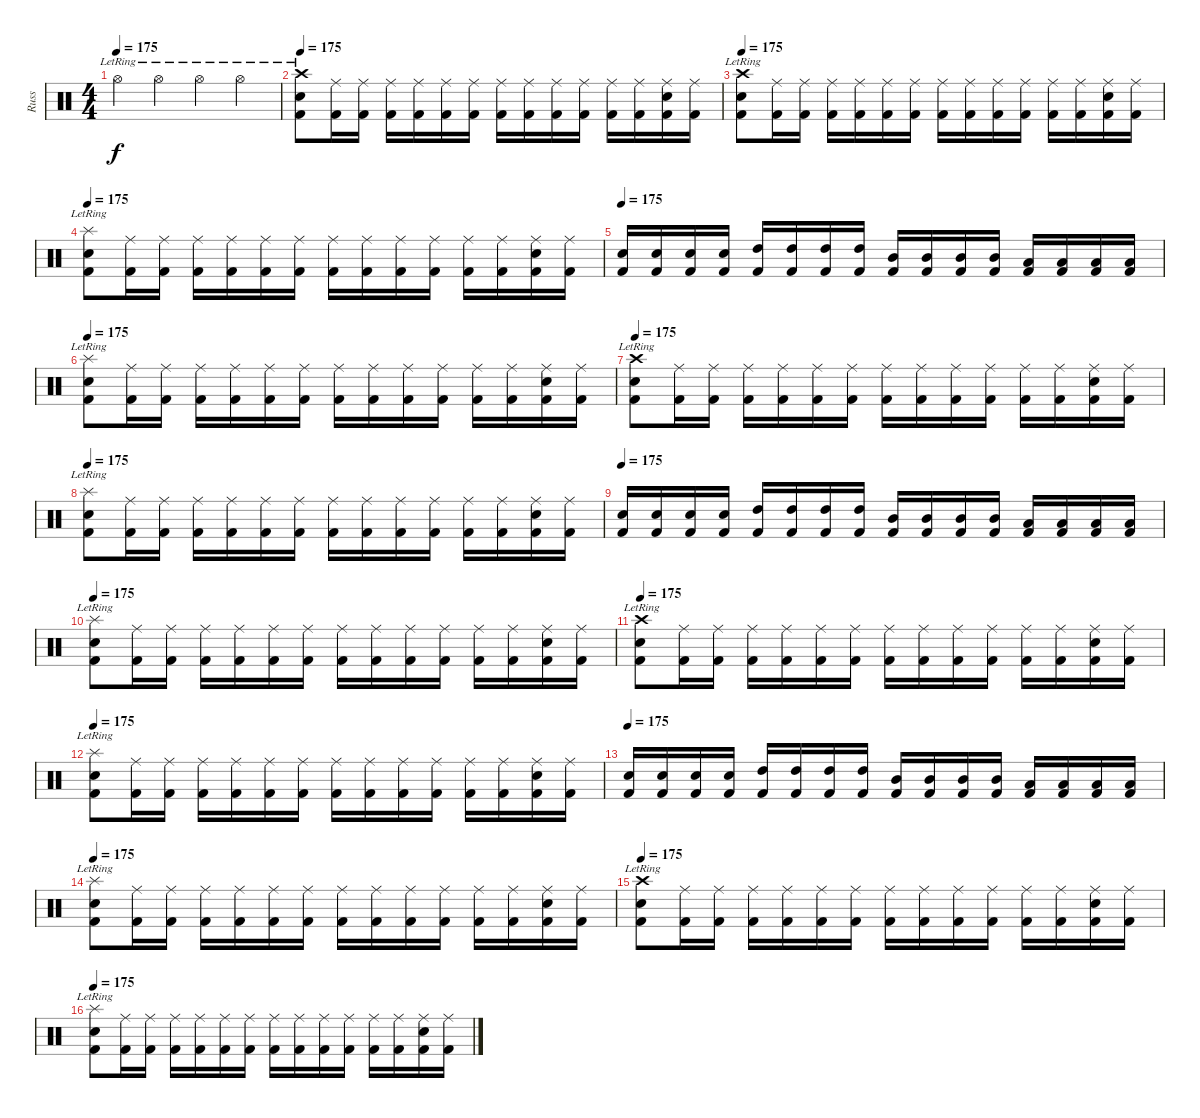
\track ("Russ" "Russ") {instrument percussion}
\staff {score}
\articulation defaults
\ts (4 4)
\tempo 175
\clef neutral
\ks c "Hi-Hat (open)"{lr}.4{dy f} "Hi-Hat (open)"{lr}.4 "Hi-Hat (open)"{lr}.4 "Hi-Hat (open)"{lr}.4
|
\tempo 175
("Kick (hit) 2" "Snare (hit) 2" "Crash high (hit)"{lr}).8 ("Kick (hit) 2" "Ride (middle)").16 ("Kick (hit) 2" "Ride (middle)").16 ("Kick (hit) 2" "Ride (middle)").16 ("Kick (hit) 2" "Ride (middle)").16 ("Kick (hit) 2" "Ride (middle)").16 ("Kick (hit) 2" "Ride (middle)").16 ("Kick (hit) 2" "Ride (middle)").16 ("Kick (hit) 2" "Ride (middle)").16 ("Kick (hit) 2" "Ride (middle)").16 ("Kick (hit) 2" "Ride (middle)").16 ("Kick (hit) 2" "Ride (middle)").16 ("Kick (hit) 2" "Ride (middle)").16 ("Kick (hit) 2" "Snare (hit) 2" "Ride (middle)").16 ("Kick (hit) 2" "Ride (middle)").16 |
\tempo 175
("Kick (hit) 2" "Snare (hit) 2" "Crash high (hit)"{lr}).8 ("Kick (hit) 2" "Ride (middle)").16 ("Kick (hit) 2" "Ride (middle)").16 ("Kick (hit) 2" "Ride (middle)").16 ("Kick (hit) 2" "Ride (middle)").16 ("Kick (hit) 2" "Ride (middle)").16 ("Kick (hit) 2" "Ride (middle)").16 ("Kick (hit) 2" "Ride (middle)").16 ("Kick (hit) 2" "Ride (middle)").16 ("Kick (hit) 2" "Ride (middle)").16 ("Kick (hit) 2" "Ride (middle)").16 ("Kick (hit) 2" "Ride (middle)").16 ("Kick (hit) 2" "Ride (middle)").16 ("Kick (hit) 2" "Snare (hit) 2" "Ride (middle)").16 ("Kick (hit) 2" "Ride (middle)").16 |
\tempo 175
("Kick (hit) 2" "Snare (hit) 2" "Splash (hit)"{lr}).8 ("Kick (hit) 2" "Ride (middle)").16 ("Kick (hit) 2" "Ride (middle)").16 ("Kick (hit) 2" "Ride (middle)").16 ("Kick (hit) 2" "Ride (middle)").16 ("Kick (hit) 2" "Ride (middle)").16 ("Kick (hit) 2" "Ride (middle)").16 ("Kick (hit) 2" "Ride (middle)").16 ("Kick (hit) 2" "Ride (middle)").16 ("Kick (hit) 2" "Ride (middle)").16 ("Kick (hit) 2" "Ride (middle)").16 ("Kick (hit) 2" "Ride (middle)").16 ("Kick (hit) 2" "Ride (middle)").16 ("Kick (hit) 2" "Snare (hit) 2" "Ride (middle)").16 ("Kick (hit) 2" "Ride (middle)").16 |
\tempo 175
("Kick (hit) 2" "Snare (hit) 2").16 ("Kick (hit) 2" "Snare (hit) 2").16 ("Kick (hit) 2" "Snare (hit) 2").16 ("Kick (hit) 2" "Snare (hit) 2").16 ("Kick (hit) 2" "High Tom (hit)").16 ("Kick (hit) 2" "High Tom (hit)").16 ("Kick (hit) 2" "High Tom (hit)").16 ("Kick (hit) 2" "High Tom (hit)").16 ("Kick (hit) 2" "Mid Tom (hit)").16 ("Kick (hit) 2" "Mid Tom (hit)").16 ("Kick (hit) 2" "Mid Tom (hit)").16 ("Kick (hit) 2" "Mid Tom (hit)").16 ("Kick (hit) 2" "Low Floor Tom (hit)").16 ("Kick (hit) 2" "Low Floor Tom (hit)").16 ("Kick (hit) 2" "Low Floor Tom (hit)").16 ("Kick (hit) 2" "Low Floor Tom (hit)").16 |
\tempo 175
("Kick (hit) 2" "Snare (hit) 2" "Splash (hit)"{lr}).8 ("Kick (hit) 2" "Ride (middle)").16 ("Kick (hit) 2" "Ride (middle)").16 ("Kick (hit) 2" "Ride (middle)").16 ("Kick (hit) 2" "Ride (middle)").16 ("Kick (hit) 2" "Ride (middle)").16 ("Kick (hit) 2" "Ride (middle)").16 ("Kick (hit) 2" "Ride (middle)").16 ("Kick (hit) 2" "Ride (middle)").16 ("Kick (hit) 2" "Ride (middle)").16 ("Kick (hit) 2" "Ride (middle)").16 ("Kick (hit) 2" "Ride (middle)").16 ("Kick (hit) 2" "Ride (middle)").16 ("Kick (hit) 2" "Snare (hit) 2" "Ride (middle)").16 ("Kick (hit) 2" "Ride (middle)").16 |
\tempo 175
("Kick (hit) 2" "Snare (hit) 2" "Crash high (hit)"{lr}).8 ("Kick (hit) 2" "Ride (middle)").16 ("Kick (hit) 2" "Ride (middle)").16 ("Kick (hit) 2" "Ride (middle)").16 ("Kick (hit) 2" "Ride (middle)").16 ("Kick (hit) 2" "Ride (middle)").16 ("Kick (hit) 2" "Ride (middle)").16 ("Kick (hit) 2" "Ride (middle)").16 ("Kick (hit) 2" "Ride (middle)").16 ("Kick (hit) 2" "Ride (middle)").16 ("Kick (hit) 2" "Ride (middle)").16 ("Kick (hit) 2" "Ride (middle)").16 ("Kick (hit) 2" "Ride (middle)").16 ("Kick (hit) 2" "Snare (hit) 2" "Ride (middle)").16 ("Kick (hit) 2" "Ride (middle)").16 |
\tempo 175
("Kick (hit) 2" "Snare (hit) 2" "Splash (hit)"{lr}).8 ("Kick (hit) 2" "Ride (middle)").16 ("Kick (hit) 2" "Ride (middle)").16 ("Kick (hit) 2" "Ride (middle)").16 ("Kick (hit) 2" "Ride (middle)").16 ("Kick (hit) 2" "Ride (middle)").16 ("Kick (hit) 2" "Ride (middle)").16 ("Kick (hit) 2" "Ride (middle)").16 ("Kick (hit) 2" "Ride (middle)").16 ("Kick (hit) 2" "Ride (middle)").16 ("Kick (hit) 2" "Ride (middle)").16 ("Kick (hit) 2" "Ride (middle)").16 ("Kick (hit) 2" "Ride (middle)").16 ("Kick (hit) 2" "Snare (hit) 2" "Ride (middle)").16 ("Kick (hit) 2" "Ride (middle)").16 |
\tempo 175
("Kick (hit) 2" "Snare (hit) 2").16 ("Kick (hit) 2" "Snare (hit) 2").16 ("Kick (hit) 2" "Snare (hit) 2").16 ("Kick (hit) 2" "Snare (hit) 2").16 ("Kick (hit) 2" "High Tom (hit)").16 ("Kick (hit) 2" "High Tom (hit)").16 ("Kick (hit) 2" "High Tom (hit)").16 ("Kick (hit) 2" "High Tom (hit)").16 ("Kick (hit) 2" "Mid Tom (hit)").16 ("Kick (hit) 2" "Mid Tom (hit)").16 ("Kick (hit) 2" "Mid Tom (hit)").16 ("Kick (hit) 2" "Mid Tom (hit)").16 ("Kick (hit) 2" "Low Floor Tom (hit)").16 ("Kick (hit) 2" "Low Floor Tom (hit)").16 ("Kick (hit) 2" "Low Floor Tom (hit)").16 ("Kick (hit) 2" "Low Floor Tom (hit)").16 |
\tempo 175
("Kick (hit) 2" "Snare (hit) 2" "Splash (hit)"{lr}).8 ("Kick (hit) 2" "Ride (middle)").16 ("Kick (hit) 2" "Ride (middle)").16 ("Kick (hit) 2" "Ride (middle)").16 ("Kick (hit) 2" "Ride (middle)").16 ("Kick (hit) 2" "Ride (middle)").16 ("Kick (hit) 2" "Ride (middle)").16 ("Kick (hit) 2" "Ride (middle)").16 ("Kick (hit) 2" "Ride (middle)").16 ("Kick (hit) 2" "Ride (middle)").16 ("Kick (hit) 2" "Ride (middle)").16 ("Kick (hit) 2" "Ride (middle)").16 ("Kick (hit) 2" "Ride (middle)").16 ("Kick (hit) 2" "Snare (hit) 2" "Ride (middle)").16 ("Kick (hit) 2" "Ride (middle)").16 |
\tempo 175
("Kick (hit) 2" "Snare (hit) 2" "Crash high (hit)"{lr}).8 ("Kick (hit) 2" "Ride (middle)").16 ("Kick (hit) 2" "Ride (middle)").16 ("Kick (hit) 2" "Ride (middle)").16 ("Kick (hit) 2" "Ride (middle)").16 ("Kick (hit) 2" "Ride (middle)").16 ("Kick (hit) 2" "Ride (middle)").16 ("Kick (hit) 2" "Ride (middle)").16 ("Kick (hit) 2" "Ride (middle)").16 ("Kick (hit) 2" "Ride (middle)").16 ("Kick (hit) 2" "Ride (middle)").16 ("Kick (hit) 2" "Ride (middle)").16 ("Kick (hit) 2" "Ride (middle)").16 ("Kick (hit) 2" "Snare (hit) 2" "Ride (middle)").16 ("Kick (hit) 2" "Ride (middle)").16 |
\tempo 175
("Kick (hit) 2" "Snare (hit) 2" "Splash (hit)"{lr}).8 ("Kick (hit) 2" "Ride (middle)").16 ("Kick (hit) 2" "Ride (middle)").16 ("Kick (hit) 2" "Ride (middle)").16 ("Kick (hit) 2" "Ride (middle)").16 ("Kick (hit) 2" "Ride (middle)").16 ("Kick (hit) 2" "Ride (middle)").16 ("Kick (hit) 2" "Ride (middle)").16 ("Kick (hit) 2" "Ride (middle)").16 ("Kick (hit) 2" "Ride (middle)").16 ("Kick (hit) 2" "Ride (middle)").16 ("Kick (hit) 2" "Ride (middle)").16 ("Kick (hit) 2" "Ride (middle)").16 ("Kick (hit) 2" "Snare (hit) 2" "Ride (middle)").16 ("Kick (hit) 2" "Ride (middle)").16 |
\tempo 175
("Kick (hit) 2" "Snare (hit) 2").16 ("Kick (hit) 2" "Snare (hit) 2").16 ("Kick (hit) 2" "Snare (hit) 2").16 ("Kick (hit) 2" "Snare (hit) 2").16 ("Kick (hit) 2" "High Tom (hit)").16 ("Kick (hit) 2" "High Tom (hit)").16 ("Kick (hit) 2" "High Tom (hit)").16 ("Kick (hit) 2" "High Tom (hit)").16 ("Kick (hit) 2" "Mid Tom (hit)").16 ("Kick (hit) 2" "Mid Tom (hit)").16 ("Kick (hit) 2" "Mid Tom (hit)").16 ("Kick (hit) 2" "Mid Tom (hit)").16 ("Kick (hit) 2" "Low Floor Tom (hit)").16 ("Kick (hit) 2" "Low Floor Tom (hit)").16 ("Kick (hit) 2" "Low Floor Tom (hit)").16 ("Kick (hit) 2" "Low Floor Tom (hit)").16 |
\tempo 175
("Kick (hit) 2" "Snare (hit) 2" "Splash (hit)"{lr}).8 ("Kick (hit) 2" "Ride (middle)").16 ("Kick (hit) 2" "Ride (middle)").16 ("Kick (hit) 2" "Ride (middle)").16 ("Kick (hit) 2" "Ride (middle)").16 ("Kick (hit) 2" "Ride (middle)").16 ("Kick (hit) 2" "Ride (middle)").16 ("Kick (hit) 2" "Ride (middle)").16 ("Kick (hit) 2" "Ride (middle)").16 ("Kick (hit) 2" "Ride (middle)").16 ("Kick (hit) 2" "Ride (middle)").16 ("Kick (hit) 2" "Ride (middle)").16 ("Kick (hit) 2" "Ride (middle)").16 ("Kick (hit) 2" "Snare (hit) 2" "Ride (middle)").16 ("Kick (hit) 2" "Ride (middle)").16 |
\tempo 175
("Kick (hit) 2" "Snare (hit) 2" "Crash high (hit)"{lr}).8 ("Kick (hit) 2" "Ride (middle)").16 ("Kick (hit) 2" "Ride (middle)").16 ("Kick (hit) 2" "Ride (middle)").16 ("Kick (hit) 2" "Ride (middle)").16 ("Kick (hit) 2" "Ride (middle)").16 ("Kick (hit) 2" "Ride (middle)").16 ("Kick (hit) 2" "Ride (middle)").16 ("Kick (hit) 2" "Ride (middle)").16 ("Kick (hit) 2" "Ride (middle)").16 ("Kick (hit) 2" "Ride (middle)").16 ("Kick (hit) 2" "Ride (middle)").16 ("Kick (hit) 2" "Ride (middle)").16 ("Kick (hit) 2" "Snare (hit) 2" "Ride (middle)").16 ("Kick (hit) 2" "Ride (middle)").16 |
\tempo 175
("Kick (hit) 2" "Snare (hit) 2" "Splash (hit)"{lr}).8 ("Kick (hit) 2" "Ride (middle)").16 ("Kick (hit) 2" "Ride (middle)").16 ("Kick (hit) 2" "Ride (middle)").16 ("Kick (hit) 2" "Ride (middle)").16 ("Kick (hit) 2" "Ride (middle)").16 ("Kick (hit) 2" "Ride (middle)").16 ("Kick (hit) 2" "Ride (middle)").16 ("Kick (hit) 2" "Ride (middle)").16 ("Kick (hit) 2" "Ride (middle)").16 ("Kick (hit) 2" "Ride (middle)").16 ("Kick (hit) 2" "Ride (middle)").16 ("Kick (hit) 2" "Ride (middle)").16 ("Kick (hit) 2" "Snare (hit) 2" "Ride (middle)").16 ("Kick (hit) 2" "Ride (middle)").16
